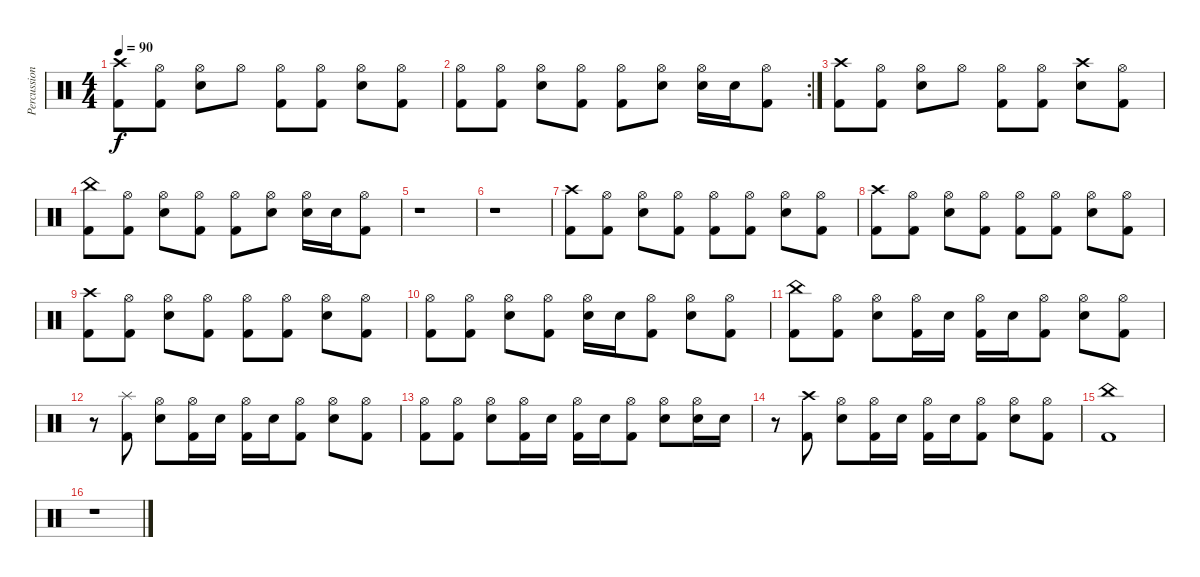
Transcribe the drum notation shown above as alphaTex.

\track ("Percussion" "Percussion") {instrument percussion}
\staff {score}
\articulation defaults
\ts (4 4)
\tempo 90
\clef neutral
\ks c
("Crash high (hit)" "Kick (hit) 2").8{dy f} ("Hi-Hat (open)" "Kick (hit) 2").8 ("Hi-Hat (open)" "Electric Snare (hit)").8 "Hi-Hat (open)".8 ("Hi-Hat (open)" "Kick (hit) 2").8 ("Hi-Hat (open)" "Kick (hit) 2").8 ("Hi-Hat (open)" "Electric Snare (hit)").8 ("Hi-Hat (open)" "Kick (hit) 2").8 |
\rc 2
("Hi-Hat (open)" "Kick (hit) 2").8 ("Hi-Hat (open)" "Kick (hit) 2").8 ("Hi-Hat (open)" "Electric Snare (hit)").8 ("Hi-Hat (open)" "Kick (hit) 2").8 ("Hi-Hat (open)" "Kick (hit) 2").8 ("Hi-Hat (open)" "Electric Snare (hit)").8 ("Hi-Hat (open)" "Electric Snare (hit)").16 "Electric Snare (hit)".16 ("Hi-Hat (open)" "Kick (hit) 2").8 |
("Crash high (hit)" "Kick (hit) 2").8 ("Hi-Hat (open)" "Kick (hit) 2").8 ("Hi-Hat (open)" "Electric Snare (hit)").8 "Hi-Hat (open)".8 ("Hi-Hat (open)" "Kick (hit) 2").8 ("Hi-Hat (open)" "Kick (hit) 2").8 ("Crash high (hit)" "Electric Snare (hit)").8 ("Hi-Hat (open)" "Kick (hit) 2").8 |
("China (hit)" "Kick (hit) 2").8 ("Hi-Hat (open)" "Kick (hit) 2").8 ("Hi-Hat (open)" "Electric Snare (hit)").8 ("Hi-Hat (open)" "Kick (hit) 2").8 ("Hi-Hat (open)" "Kick (hit) 2").8 ("Hi-Hat (open)" "Electric Snare (hit)").8 ("Hi-Hat (open)" "Electric Snare (hit)").16 "Electric Snare (hit)".16 ("Hi-Hat (open)" "Kick (hit) 2").8 |
r.1 |
r.1 |
("Crash high (hit)" "Kick (hit) 2").8 ("Hi-Hat (open)" "Kick (hit) 2").8 ("Hi-Hat (open)" "Electric Snare (hit)").8 ("Hi-Hat (open)" "Kick (hit) 2").8 ("Hi-Hat (open)" "Kick (hit) 2").8 ("Hi-Hat (open)" "Kick (hit) 2").8 ("Hi-Hat (open)" "Electric Snare (hit)").8 ("Hi-Hat (open)" "Kick (hit) 2").8 |
("Crash high (hit)" "Kick (hit) 2").8 ("Hi-Hat (open)" "Kick (hit) 2").8 ("Hi-Hat (open)" "Electric Snare (hit)").8 ("Hi-Hat (open)" "Kick (hit) 2").8 ("Hi-Hat (open)" "Kick (hit) 2").8 ("Hi-Hat (open)" "Kick (hit) 2").8 ("Hi-Hat (open)" "Electric Snare (hit)").8 ("Hi-Hat (open)" "Kick (hit) 2").8 |
("Crash high (hit)" "Kick (hit) 2").8 ("Hi-Hat (open)" "Kick (hit) 2").8 ("Hi-Hat (open)" "Electric Snare (hit)").8 ("Hi-Hat (open)" "Kick (hit) 2").8 ("Hi-Hat (open)" "Kick (hit) 2").8 ("Hi-Hat (open)" "Kick (hit) 2").8 ("Hi-Hat (open)" "Electric Snare (hit)").8 ("Hi-Hat (open)" "Kick (hit) 2").8 |
("Hi-Hat (open)" "Kick (hit) 2").8 ("Hi-Hat (open)" "Kick (hit) 2").8 ("Hi-Hat (open)" "Electric Snare (hit)").8 ("Hi-Hat (open)" "Kick (hit) 2").8 ("Hi-Hat (open)" "Electric Snare (hit)").16 "Electric Snare (hit)".16 ("Hi-Hat (open)" "Kick (hit) 2").8 ("Hi-Hat (open)" "Electric Snare (hit)").8 ("Hi-Hat (open)" "Kick (hit) 2").8 |
("China (hit)" "Kick (hit) 2").8 ("Hi-Hat (open)" "Kick (hit) 2").8 ("Hi-Hat (open)" "Electric Snare (hit)").8 ("Hi-Hat (open)" "Kick (hit) 2").16 "Electric Snare (hit)".16 ("Hi-Hat (open)" "Kick (hit) 2").16 "Electric Snare (hit)".16 ("Hi-Hat (open)" "Kick (hit) 2").8 ("Hi-Hat (open)" "Electric Snare (hit)").8 ("Hi-Hat (open)" "Kick (hit) 2").8 |
r.8 ("Splash (hit)" "Kick (hit) 2").8 ("Hi-Hat (open)" "Electric Snare (hit)").8 ("Hi-Hat (open)" "Kick (hit) 2").16 "Electric Snare (hit)".16 ("Hi-Hat (open)" "Kick (hit) 2").16 "Electric Snare (hit)".16 ("Hi-Hat (open)" "Kick (hit) 2").8 ("Hi-Hat (open)" "Electric Snare (hit)").8 ("Hi-Hat (open)" "Kick (hit) 2").8 |
("Hi-Hat (open)" "Kick (hit) 2").8 ("Hi-Hat (open)" "Kick (hit) 2").8 ("Hi-Hat (open)" "Electric Snare (hit)").8 ("Hi-Hat (open)" "Kick (hit) 2").16 "Electric Snare (hit)".16 ("Hi-Hat (open)" "Kick (hit) 2").16 "Electric Snare (hit)".16 ("Hi-Hat (open)" "Kick (hit) 2").8 ("Hi-Hat (open)" "Electric Snare (hit)").8 ("Hi-Hat (open)" "Electric Snare (hit)").16 "Electric Snare (hit)".16 |
r.8 ("Crash high (hit)" "Kick (hit) 2").8 ("Hi-Hat (open)" "Electric Snare (hit)").8 ("Hi-Hat (open)" "Kick (hit) 2").16 "Electric Snare (hit)".16 ("Hi-Hat (open)" "Kick (hit) 2").16 "Electric Snare (hit)".16 ("Hi-Hat (open)" "Kick (hit) 2").8 ("Hi-Hat (open)" "Electric Snare (hit)").8 ("Hi-Hat (open)" "Kick (hit) 2").8 |
("China (hit)" "Kick (hit) 2").1 |
r.1
